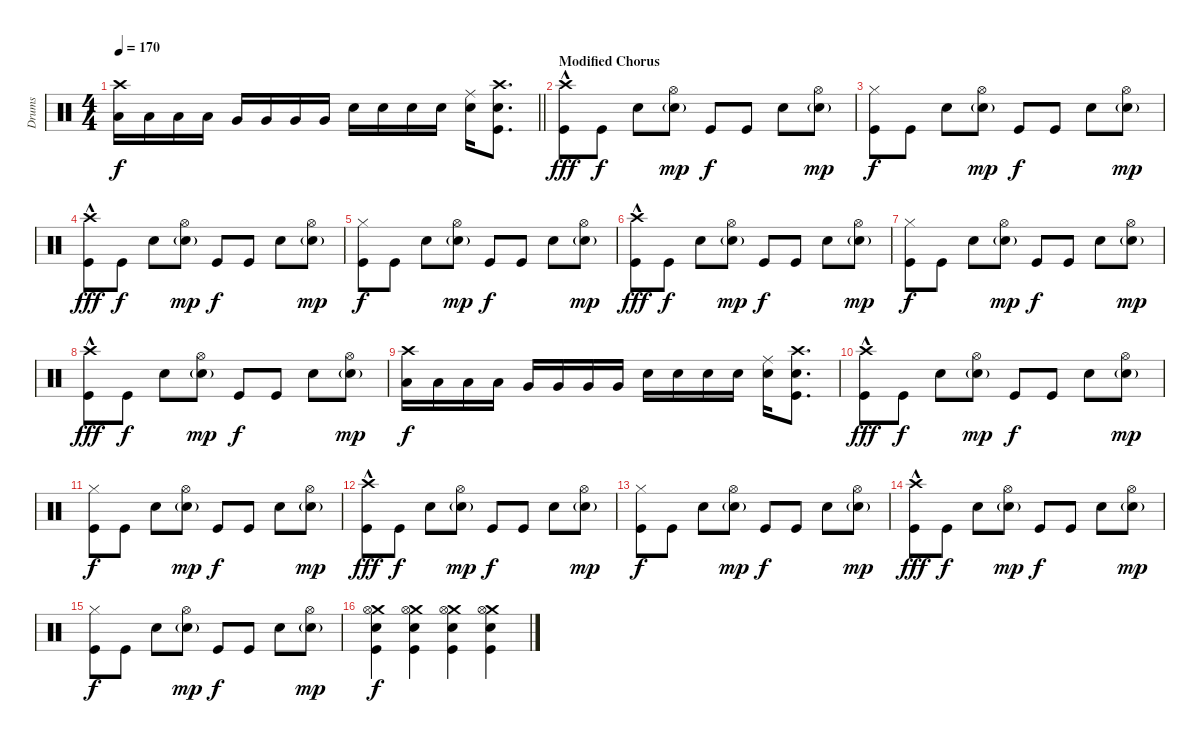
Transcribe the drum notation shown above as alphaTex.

\track ("Drums" "Drums") {instrument percussion}
\staff {score}
\articulation defaults
\ts (4 4)
\tempo 170
\clef neutral
\barLineRight lightlight
\ks c
("Crash high (hit)" "Low Floor Tom (hit)").16{dy f} "Low Floor Tom (hit)".16 "Low Floor Tom (hit)".16 "Low Floor Tom (hit)".16 "Very Low Tom (hit)".16 "Very Low Tom (hit)".16 "Very Low Tom (hit)".16 "Very Low Tom (hit)".16 "Electric Snare (hit)".16 "Electric Snare (hit)".16 "Electric Snare (hit)".16 "Electric Snare (hit)".16 ("Ride (middle)" "Electric Snare (hit)").16 ("Crash high (hit)" "Electric Snare (hit)" "Kick (hit)").8{d} |
\section ("" "Modified Chorus")
("Crash high (hit)"{hac} "Kick (hit)").8{dy fff} "Kick (hit)".8{dy f} "Electric Snare (hit)".8 ("Hi-Hat (open)" "Electric Snare (hit)"{g}).8{dy mp} "Kick (hit)".8{dy f} "Kick (hit)".8 "Electric Snare (hit)".8 ("Hi-Hat (open)" "Electric Snare (hit)"{g}).8{dy mp} |
("Hi-Hat (closed)" "Kick (hit)").8{dy f} "Kick (hit)".8 "Electric Snare (hit)".8 ("Hi-Hat (open)" "Electric Snare (hit)"{g}).8{dy mp} "Kick (hit)".8{dy f} "Kick (hit)".8 "Electric Snare (hit)".8 ("Hi-Hat (open)" "Electric Snare (hit)"{g}).8{dy mp} |
("Crash high (hit)"{hac} "Kick (hit)").8{dy fff} "Kick (hit)".8{dy f} "Electric Snare (hit)".8 ("Hi-Hat (open)" "Electric Snare (hit)"{g}).8{dy mp} "Kick (hit)".8{dy f} "Kick (hit)".8 "Electric Snare (hit)".8 ("Hi-Hat (open)" "Electric Snare (hit)"{g}).8{dy mp} |
("Hi-Hat (closed)" "Kick (hit)").8{dy f} "Kick (hit)".8 "Electric Snare (hit)".8 ("Hi-Hat (open)" "Electric Snare (hit)"{g}).8{dy mp} "Kick (hit)".8{dy f} "Kick (hit)".8 "Electric Snare (hit)".8 ("Hi-Hat (open)" "Electric Snare (hit)"{g}).8{dy mp} |
("Crash high (hit)"{hac} "Kick (hit)").8{dy fff} "Kick (hit)".8{dy f} "Electric Snare (hit)".8 ("Hi-Hat (open)" "Electric Snare (hit)"{g}).8{dy mp} "Kick (hit)".8{dy f} "Kick (hit)".8 "Electric Snare (hit)".8 ("Hi-Hat (open)" "Electric Snare (hit)"{g}).8{dy mp} |
("Hi-Hat (closed)" "Kick (hit)").8{dy f} "Kick (hit)".8 "Electric Snare (hit)".8 ("Hi-Hat (open)" "Electric Snare (hit)"{g}).8{dy mp} "Kick (hit)".8{dy f} "Kick (hit)".8 "Electric Snare (hit)".8 ("Hi-Hat (open)" "Electric Snare (hit)"{g}).8{dy mp} |
("Crash high (hit)"{hac} "Kick (hit)").8{dy fff} "Kick (hit)".8{dy f} "Electric Snare (hit)".8 ("Hi-Hat (open)" "Electric Snare (hit)"{g}).8{dy mp} "Kick (hit)".8{dy f} "Kick (hit)".8 "Electric Snare (hit)".8 ("Hi-Hat (open)" "Electric Snare (hit)"{g}).8{dy mp} |
("Crash high (hit)" "Low Floor Tom (hit)").16{dy f} "Low Floor Tom (hit)".16 "Low Floor Tom (hit)".16 "Low Floor Tom (hit)".16 "Very Low Tom (hit)".16 "Very Low Tom (hit)".16 "Very Low Tom (hit)".16 "Very Low Tom (hit)".16 "Electric Snare (hit)".16 "Electric Snare (hit)".16 "Electric Snare (hit)".16 "Electric Snare (hit)".16 ("Ride (middle)" "Electric Snare (hit)").16 ("Crash high (hit)" "Electric Snare (hit)" "Kick (hit)").8{d} |
("Crash high (hit)"{hac} "Kick (hit)").8{dy fff} "Kick (hit)".8{dy f} "Electric Snare (hit)".8 ("Hi-Hat (open)" "Electric Snare (hit)"{g}).8{dy mp} "Kick (hit)".8{dy f} "Kick (hit)".8 "Electric Snare (hit)".8 ("Hi-Hat (open)" "Electric Snare (hit)"{g}).8{dy mp} |
("Hi-Hat (closed)" "Kick (hit)").8{dy f} "Kick (hit)".8 "Electric Snare (hit)".8 ("Hi-Hat (open)" "Electric Snare (hit)"{g}).8{dy mp} "Kick (hit)".8{dy f} "Kick (hit)".8 "Electric Snare (hit)".8 ("Hi-Hat (open)" "Electric Snare (hit)"{g}).8{dy mp} |
("Crash high (hit)"{hac} "Kick (hit)").8{dy fff} "Kick (hit)".8{dy f} "Electric Snare (hit)".8 ("Hi-Hat (open)" "Electric Snare (hit)"{g}).8{dy mp} "Kick (hit)".8{dy f} "Kick (hit)".8 "Electric Snare (hit)".8 ("Hi-Hat (open)" "Electric Snare (hit)"{g}).8{dy mp} |
("Hi-Hat (closed)" "Kick (hit)").8{dy f} "Kick (hit)".8 "Electric Snare (hit)".8 ("Hi-Hat (open)" "Electric Snare (hit)"{g}).8{dy mp} "Kick (hit)".8{dy f} "Kick (hit)".8 "Electric Snare (hit)".8 ("Hi-Hat (open)" "Electric Snare (hit)"{g}).8{dy mp} |
("Crash high (hit)"{hac} "Kick (hit)").8{dy fff} "Kick (hit)".8{dy f} "Electric Snare (hit)".8 ("Hi-Hat (open)" "Electric Snare (hit)"{g}).8{dy mp} "Kick (hit)".8{dy f} "Kick (hit)".8 "Electric Snare (hit)".8 ("Hi-Hat (open)" "Electric Snare (hit)"{g}).8{dy mp} |
("Hi-Hat (closed)" "Kick (hit)").8{dy f} "Kick (hit)".8 "Electric Snare (hit)".8 ("Hi-Hat (open)" "Electric Snare (hit)"{g}).8{dy mp} "Kick (hit)".8{dy f} "Kick (hit)".8 "Electric Snare (hit)".8 ("Hi-Hat (open)" "Electric Snare (hit)"{g}).8{dy mp} |
("Crash medium (hit)" "Hi-Hat (open)" "Electric Snare (hit)" "Kick (hit)").4{dy f} ("Crash medium (hit)" "Hi-Hat (open)" "Electric Snare (hit)" "Kick (hit)").4 ("Crash medium (hit)" "Hi-Hat (open)" "Electric Snare (hit)" "Kick (hit)").4 ("Crash medium (hit)" "Hi-Hat (open)" "Electric Snare (hit)" "Kick (hit)").4
